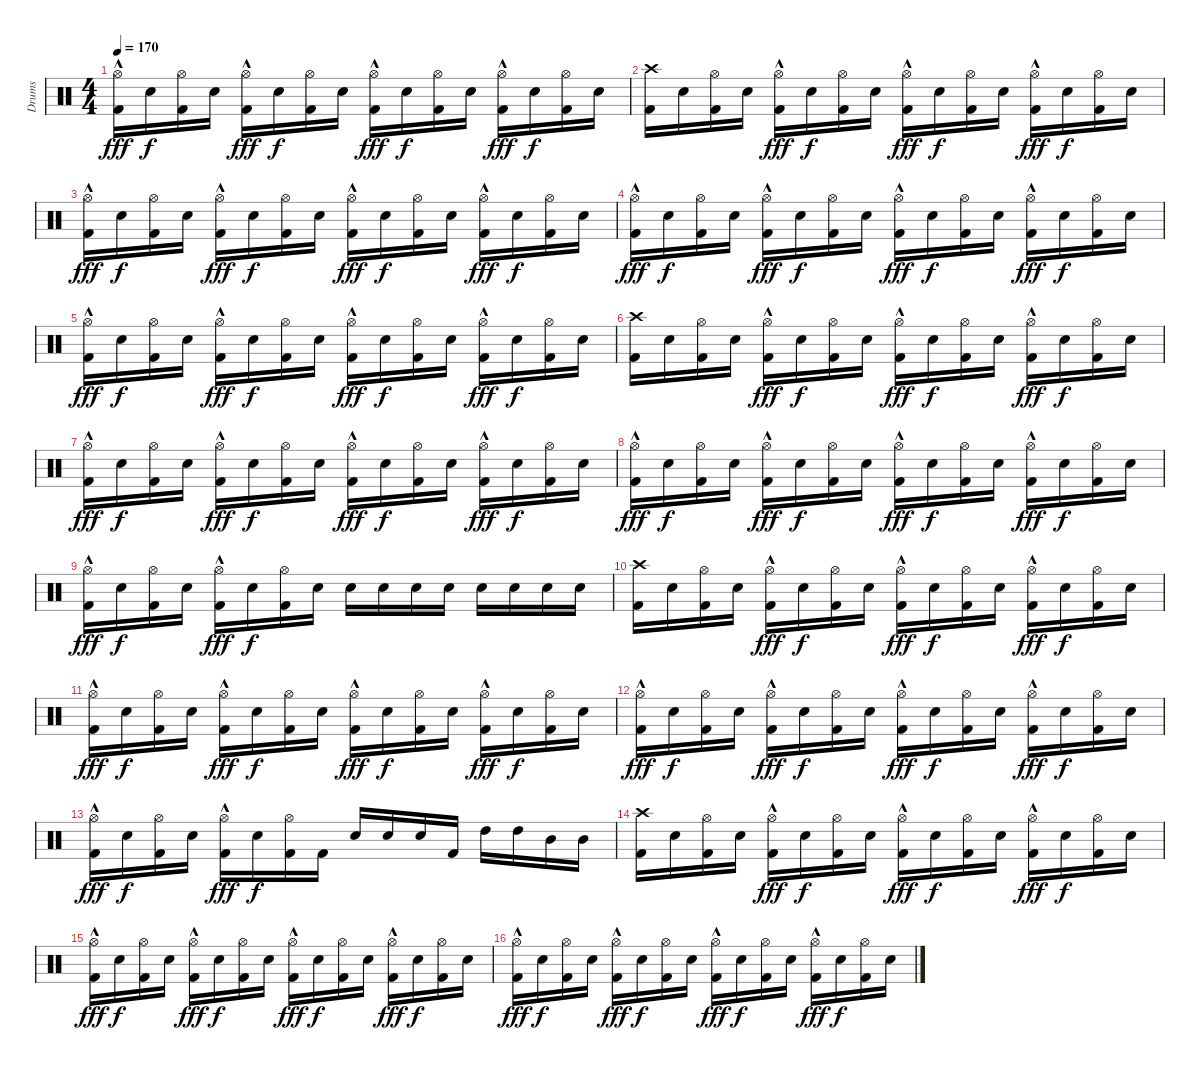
\track ("Drums" "Drums") {instrument percussion}
\staff {score}
\articulation defaults
\ts (4 4)
\tempo 170
\clef neutral
\ks c
("Hi-Hat (open)"{hac} "Kick (hit) 2").16{dy fff} "Snare (hit) 2".16{dy f} ("Hi-Hat (open)" "Kick (hit) 2").16 "Snare (hit) 2".16 ("Hi-Hat (open)"{hac} "Kick (hit) 2").16{dy fff} "Snare (hit) 2".16{dy f} ("Hi-Hat (open)" "Kick (hit) 2").16 "Snare (hit) 2".16 ("Hi-Hat (open)"{hac} "Kick (hit) 2").16{dy fff} "Snare (hit) 2".16{dy f} ("Hi-Hat (open)" "Kick (hit) 2").16 "Snare (hit) 2".16 ("Hi-Hat (open)"{hac} "Kick (hit) 2").16{dy fff} "Snare (hit) 2".16{dy f} ("Hi-Hat (open)" "Kick (hit) 2").16 "Snare (hit) 2".16 |
("Crash high (hit)" "Kick (hit) 2").16 "Snare (hit) 2".16 ("Hi-Hat (open)" "Kick (hit) 2").16 "Snare (hit) 2".16 ("Hi-Hat (open)"{hac} "Kick (hit) 2").16{dy fff} "Snare (hit) 2".16{dy f} ("Hi-Hat (open)" "Kick (hit) 2").16 "Snare (hit) 2".16 ("Hi-Hat (open)"{hac} "Kick (hit) 2").16{dy fff} "Snare (hit) 2".16{dy f} ("Hi-Hat (open)" "Kick (hit) 2").16 "Snare (hit) 2".16 ("Hi-Hat (open)"{hac} "Kick (hit) 2").16{dy fff} "Snare (hit) 2".16{dy f} ("Hi-Hat (open)" "Kick (hit) 2").16 "Snare (hit) 2".16 |
("Hi-Hat (open)"{hac} "Kick (hit) 2").16{dy fff} "Snare (hit) 2".16{dy f} ("Hi-Hat (open)" "Kick (hit) 2").16 "Snare (hit) 2".16 ("Hi-Hat (open)"{hac} "Kick (hit) 2").16{dy fff} "Snare (hit) 2".16{dy f} ("Hi-Hat (open)" "Kick (hit) 2").16 "Snare (hit) 2".16 ("Hi-Hat (open)"{hac} "Kick (hit) 2").16{dy fff} "Snare (hit) 2".16{dy f} ("Hi-Hat (open)" "Kick (hit) 2").16 "Snare (hit) 2".16 ("Hi-Hat (open)"{hac} "Kick (hit) 2").16{dy fff} "Snare (hit) 2".16{dy f} ("Hi-Hat (open)" "Kick (hit) 2").16 "Snare (hit) 2".16 |
("Hi-Hat (open)"{hac} "Kick (hit) 2").16{dy fff} "Snare (hit) 2".16{dy f} ("Hi-Hat (open)" "Kick (hit) 2").16 "Snare (hit) 2".16 ("Hi-Hat (open)"{hac} "Kick (hit) 2").16{dy fff} "Snare (hit) 2".16{dy f} ("Hi-Hat (open)" "Kick (hit) 2").16 "Snare (hit) 2".16 ("Hi-Hat (open)"{hac} "Kick (hit) 2").16{dy fff} "Snare (hit) 2".16{dy f} ("Hi-Hat (open)" "Kick (hit) 2").16 "Snare (hit) 2".16 ("Hi-Hat (open)"{hac} "Kick (hit) 2").16{dy fff} "Snare (hit) 2".16{dy f} ("Hi-Hat (open)" "Kick (hit) 2").16 "Snare (hit) 2".16 |
("Hi-Hat (open)"{hac} "Kick (hit) 2").16{dy fff} "Snare (hit) 2".16{dy f} ("Hi-Hat (open)" "Kick (hit) 2").16 "Snare (hit) 2".16 ("Hi-Hat (open)"{hac} "Kick (hit) 2").16{dy fff} "Snare (hit) 2".16{dy f} ("Hi-Hat (open)" "Kick (hit) 2").16 "Snare (hit) 2".16 ("Hi-Hat (open)"{hac} "Kick (hit) 2").16{dy fff} "Snare (hit) 2".16{dy f} ("Hi-Hat (open)" "Kick (hit) 2").16 "Snare (hit) 2".16 ("Hi-Hat (open)"{hac} "Kick (hit) 2").16{dy fff} "Snare (hit) 2".16{dy f} ("Hi-Hat (open)" "Kick (hit) 2").16 "Snare (hit) 2".16 |
("Crash high (hit)" "Kick (hit) 2").16 "Snare (hit) 2".16 ("Hi-Hat (open)" "Kick (hit) 2").16 "Snare (hit) 2".16 ("Hi-Hat (open)"{hac} "Kick (hit) 2").16{dy fff} "Snare (hit) 2".16{dy f} ("Hi-Hat (open)" "Kick (hit) 2").16 "Snare (hit) 2".16 ("Hi-Hat (open)"{hac} "Kick (hit) 2").16{dy fff} "Snare (hit) 2".16{dy f} ("Hi-Hat (open)" "Kick (hit) 2").16 "Snare (hit) 2".16 ("Hi-Hat (open)"{hac} "Kick (hit) 2").16{dy fff} "Snare (hit) 2".16{dy f} ("Hi-Hat (open)" "Kick (hit) 2").16 "Snare (hit) 2".16 |
("Hi-Hat (open)"{hac} "Kick (hit) 2").16{dy fff} "Snare (hit) 2".16{dy f} ("Hi-Hat (open)" "Kick (hit) 2").16 "Snare (hit) 2".16 ("Hi-Hat (open)"{hac} "Kick (hit) 2").16{dy fff} "Snare (hit) 2".16{dy f} ("Hi-Hat (open)" "Kick (hit) 2").16 "Snare (hit) 2".16 ("Hi-Hat (open)"{hac} "Kick (hit) 2").16{dy fff} "Snare (hit) 2".16{dy f} ("Hi-Hat (open)" "Kick (hit) 2").16 "Snare (hit) 2".16 ("Hi-Hat (open)"{hac} "Kick (hit) 2").16{dy fff} "Snare (hit) 2".16{dy f} ("Hi-Hat (open)" "Kick (hit) 2").16 "Snare (hit) 2".16 |
("Hi-Hat (open)"{hac} "Kick (hit) 2").16{dy fff} "Snare (hit) 2".16{dy f} ("Hi-Hat (open)" "Kick (hit) 2").16 "Snare (hit) 2".16 ("Hi-Hat (open)"{hac} "Kick (hit) 2").16{dy fff} "Snare (hit) 2".16{dy f} ("Hi-Hat (open)" "Kick (hit) 2").16 "Snare (hit) 2".16 ("Hi-Hat (open)"{hac} "Kick (hit) 2").16{dy fff} "Snare (hit) 2".16{dy f} ("Hi-Hat (open)" "Kick (hit) 2").16 "Snare (hit) 2".16 ("Hi-Hat (open)"{hac} "Kick (hit) 2").16{dy fff} "Snare (hit) 2".16{dy f} ("Hi-Hat (open)" "Kick (hit) 2").16 "Snare (hit) 2".16 |
("Hi-Hat (open)"{hac} "Kick (hit) 2").16{dy fff} "Snare (hit) 2".16{dy f} ("Hi-Hat (open)" "Kick (hit) 2").16 "Snare (hit) 2".16 ("Hi-Hat (open)"{hac} "Kick (hit) 2").16{dy fff} "Snare (hit) 2".16{dy f} ("Hi-Hat (open)" "Kick (hit) 2").16 "Snare (hit) 2".16 "Snare (hit) 2".16 "Snare (hit) 2".16 "Snare (hit) 2".16 "Snare (hit) 2".16 "Snare (hit) 2".16 "Snare (hit) 2".16 "Snare (hit) 2".16 "Snare (hit) 2".16 |
("Crash high (hit)" "Kick (hit) 2").16 "Snare (hit) 2".16 ("Hi-Hat (open)" "Kick (hit) 2").16 "Snare (hit) 2".16 ("Hi-Hat (open)"{hac} "Kick (hit) 2").16{dy fff} "Snare (hit) 2".16{dy f} ("Hi-Hat (open)" "Kick (hit) 2").16 "Snare (hit) 2".16 ("Hi-Hat (open)"{hac} "Kick (hit) 2").16{dy fff} "Snare (hit) 2".16{dy f} ("Hi-Hat (open)" "Kick (hit) 2").16 "Snare (hit) 2".16 ("Hi-Hat (open)"{hac} "Kick (hit) 2").16{dy fff} "Snare (hit) 2".16{dy f} ("Hi-Hat (open)" "Kick (hit) 2").16 "Snare (hit) 2".16 |
("Hi-Hat (open)"{hac} "Kick (hit) 2").16{dy fff} "Snare (hit) 2".16{dy f} ("Hi-Hat (open)" "Kick (hit) 2").16 "Snare (hit) 2".16 ("Hi-Hat (open)"{hac} "Kick (hit) 2").16{dy fff} "Snare (hit) 2".16{dy f} ("Hi-Hat (open)" "Kick (hit) 2").16 "Snare (hit) 2".16 ("Hi-Hat (open)"{hac} "Kick (hit) 2").16{dy fff} "Snare (hit) 2".16{dy f} ("Hi-Hat (open)" "Kick (hit) 2").16 "Snare (hit) 2".16 ("Hi-Hat (open)"{hac} "Kick (hit) 2").16{dy fff} "Snare (hit) 2".16{dy f} ("Hi-Hat (open)" "Kick (hit) 2").16 "Snare (hit) 2".16 |
("Hi-Hat (open)"{hac} "Kick (hit) 2").16{dy fff} "Snare (hit) 2".16{dy f} ("Hi-Hat (open)" "Kick (hit) 2").16 "Snare (hit) 2".16 ("Hi-Hat (open)"{hac} "Kick (hit) 2").16{dy fff} "Snare (hit) 2".16{dy f} ("Hi-Hat (open)" "Kick (hit) 2").16 "Snare (hit) 2".16 ("Hi-Hat (open)"{hac} "Kick (hit) 2").16{dy fff} "Snare (hit) 2".16{dy f} ("Hi-Hat (open)" "Kick (hit) 2").16 "Snare (hit) 2".16 ("Hi-Hat (open)"{hac} "Kick (hit) 2").16{dy fff} "Snare (hit) 2".16{dy f} ("Hi-Hat (open)" "Kick (hit) 2").16 "Snare (hit) 2".16 |
("Hi-Hat (open)"{hac} "Kick (hit) 2").16{dy fff} "Snare (hit) 2".16{dy f} ("Hi-Hat (open)" "Kick (hit) 2").16 "Snare (hit) 2".16 ("Hi-Hat (open)"{hac} "Kick (hit) 2").16{dy fff} "Snare (hit) 2".16{dy f} ("Hi-Hat (open)" "Kick (hit) 2").16 "Kick (hit) 2".16 "Snare (hit) 2".16 "Snare (hit) 2".16 "Snare (hit) 2".16 "Kick (hit) 2".16 "High Tom (hit)".16 "High Tom (hit)".16 "Mid Tom (hit)".16 "Mid Tom (hit)".16 |
("Crash high (hit)" "Kick (hit) 2").16 "Snare (hit) 2".16 ("Hi-Hat (open)" "Kick (hit) 2").16 "Snare (hit) 2".16 ("Hi-Hat (open)"{hac} "Kick (hit) 2").16{dy fff} "Snare (hit) 2".16{dy f} ("Hi-Hat (open)" "Kick (hit) 2").16 "Snare (hit) 2".16 ("Hi-Hat (open)"{hac} "Kick (hit) 2").16{dy fff} "Snare (hit) 2".16{dy f} ("Hi-Hat (open)" "Kick (hit) 2").16 "Snare (hit) 2".16 ("Hi-Hat (open)"{hac} "Kick (hit) 2").16{dy fff} "Snare (hit) 2".16{dy f} ("Hi-Hat (open)" "Kick (hit) 2").16 "Snare (hit) 2".16 |
("Hi-Hat (open)"{hac} "Kick (hit) 2").16{dy fff} "Snare (hit) 2".16{dy f} ("Hi-Hat (open)" "Kick (hit) 2").16 "Snare (hit) 2".16 ("Hi-Hat (open)"{hac} "Kick (hit) 2").16{dy fff} "Snare (hit) 2".16{dy f} ("Hi-Hat (open)" "Kick (hit) 2").16 "Snare (hit) 2".16 ("Hi-Hat (open)"{hac} "Kick (hit) 2").16{dy fff} "Snare (hit) 2".16{dy f} ("Hi-Hat (open)" "Kick (hit) 2").16 "Snare (hit) 2".16 ("Hi-Hat (open)"{hac} "Kick (hit) 2").16{dy fff} "Snare (hit) 2".16{dy f} ("Hi-Hat (open)" "Kick (hit) 2").16 "Snare (hit) 2".16 |
("Hi-Hat (open)"{hac} "Kick (hit) 2").16{dy fff} "Snare (hit) 2".16{dy f} ("Hi-Hat (open)" "Kick (hit) 2").16 "Snare (hit) 2".16 ("Hi-Hat (open)"{hac} "Kick (hit) 2").16{dy fff} "Snare (hit) 2".16{dy f} ("Hi-Hat (open)" "Kick (hit) 2").16 "Snare (hit) 2".16 ("Hi-Hat (open)"{hac} "Kick (hit) 2").16{dy fff} "Snare (hit) 2".16{dy f} ("Hi-Hat (open)" "Kick (hit) 2").16 "Snare (hit) 2".16 ("Hi-Hat (open)"{hac} "Kick (hit) 2").16{dy fff} "Snare (hit) 2".16{dy f} ("Hi-Hat (open)" "Kick (hit) 2").16 "Snare (hit) 2".16
